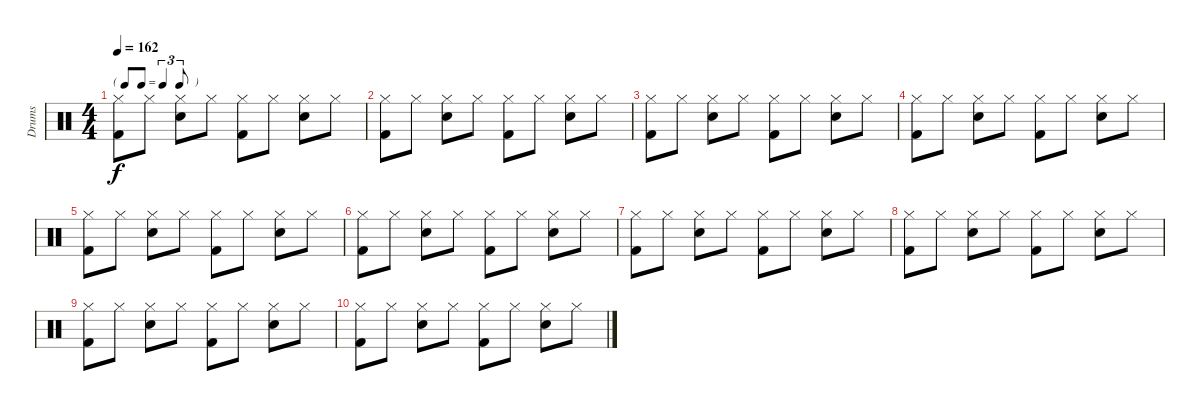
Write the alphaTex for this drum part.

\track ("Drums" "Drums") {instrument percussion}
\staff {score}
\articulation defaults
\ts (4 4)
\tf triplet8th
\tempo 162
\clef neutral
\ks c
("Hi-Hat (closed)" "Kick (hit) 2").8{dy f} "Hi-Hat (closed)".8 ("Hi-Hat (closed)" "Snare (hit) 2").8 "Hi-Hat (closed)".8 ("Hi-Hat (closed)" "Kick (hit) 2").8 "Hi-Hat (closed)".8 ("Hi-Hat (closed)" "Snare (hit) 2").8 "Hi-Hat (closed)".8 |
("Hi-Hat (closed)" "Kick (hit) 2").8 "Hi-Hat (closed)".8 ("Hi-Hat (closed)" "Snare (hit) 2").8 "Hi-Hat (closed)".8 ("Hi-Hat (closed)" "Kick (hit) 2").8 "Hi-Hat (closed)".8 ("Hi-Hat (closed)" "Snare (hit) 2").8 "Hi-Hat (closed)".8 |
("Hi-Hat (closed)" "Kick (hit) 2").8 "Hi-Hat (closed)".8 ("Hi-Hat (closed)" "Snare (hit) 2").8 "Hi-Hat (closed)".8 ("Hi-Hat (closed)" "Kick (hit) 2").8 "Hi-Hat (closed)".8 ("Hi-Hat (closed)" "Snare (hit) 2").8 "Hi-Hat (closed)".8 |
("Hi-Hat (closed)" "Kick (hit) 2").8 "Hi-Hat (closed)".8 ("Hi-Hat (closed)" "Snare (hit) 2").8 "Hi-Hat (closed)".8 ("Hi-Hat (closed)" "Kick (hit) 2").8 "Hi-Hat (closed)".8 ("Hi-Hat (closed)" "Snare (hit) 2").8 "Hi-Hat (closed)".8 |
("Hi-Hat (closed)" "Kick (hit) 2").8 "Hi-Hat (closed)".8 ("Hi-Hat (closed)" "Snare (hit) 2").8 "Hi-Hat (closed)".8 ("Hi-Hat (closed)" "Kick (hit) 2").8 "Hi-Hat (closed)".8 ("Hi-Hat (closed)" "Snare (hit) 2").8 "Hi-Hat (closed)".8 |
("Hi-Hat (closed)" "Kick (hit) 2").8 "Hi-Hat (closed)".8 ("Hi-Hat (closed)" "Snare (hit) 2").8 "Hi-Hat (closed)".8 ("Hi-Hat (closed)" "Kick (hit) 2").8 "Hi-Hat (closed)".8 ("Hi-Hat (closed)" "Snare (hit) 2").8 "Hi-Hat (closed)".8 |
("Hi-Hat (closed)" "Kick (hit) 2").8 "Hi-Hat (closed)".8 ("Hi-Hat (closed)" "Snare (hit) 2").8 "Hi-Hat (closed)".8 ("Hi-Hat (closed)" "Kick (hit) 2").8 "Hi-Hat (closed)".8 ("Hi-Hat (closed)" "Snare (hit) 2").8 "Hi-Hat (closed)".8 |
("Hi-Hat (closed)" "Kick (hit) 2").8 "Hi-Hat (closed)".8 ("Hi-Hat (closed)" "Snare (hit) 2").8 "Hi-Hat (closed)".8 ("Hi-Hat (closed)" "Kick (hit) 2").8 "Hi-Hat (closed)".8 ("Hi-Hat (closed)" "Snare (hit) 2").8 "Hi-Hat (closed)".8 |
("Hi-Hat (closed)" "Kick (hit) 2").8 "Hi-Hat (closed)".8 ("Hi-Hat (closed)" "Snare (hit) 2").8 "Hi-Hat (closed)".8 ("Hi-Hat (closed)" "Kick (hit) 2").8 "Hi-Hat (closed)".8 ("Hi-Hat (closed)" "Snare (hit) 2").8 "Hi-Hat (closed)".8 |
("Hi-Hat (closed)" "Kick (hit) 2").8 "Hi-Hat (closed)".8 ("Hi-Hat (closed)" "Snare (hit) 2").8 "Hi-Hat (closed)".8 ("Hi-Hat (closed)" "Kick (hit) 2").8 "Hi-Hat (closed)".8 ("Hi-Hat (closed)" "Snare (hit) 2").8 "Hi-Hat (closed)".8
